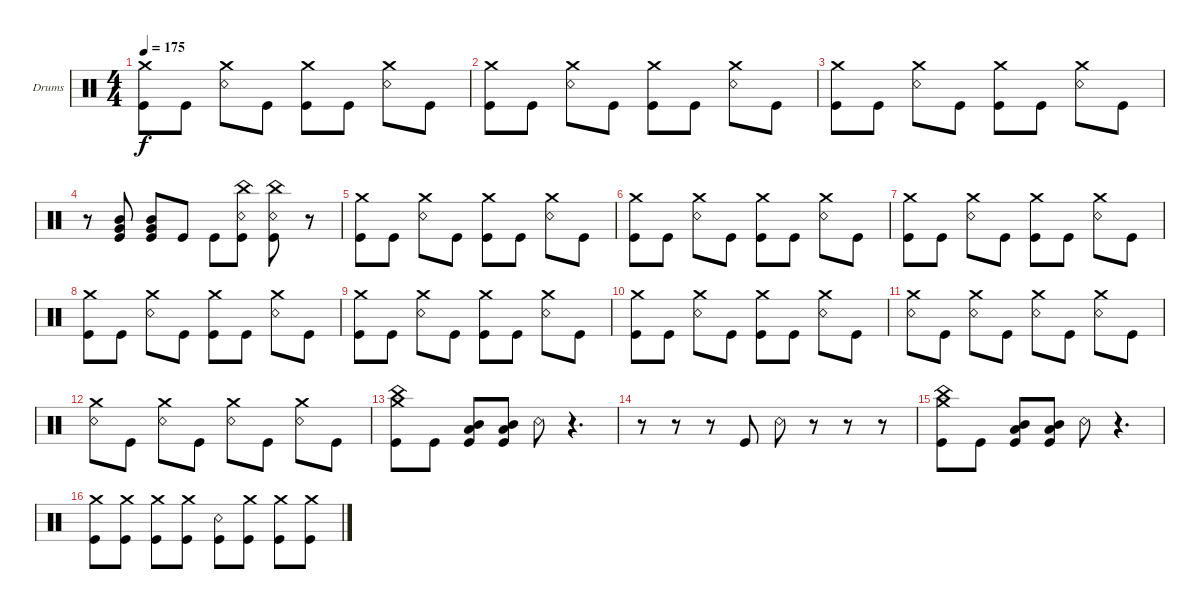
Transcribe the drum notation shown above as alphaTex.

\bracketExtendMode groupsimilarinstruments
\firstSystemTrackNameOrientation horizontal
\otherSystemsTrackNameOrientation horizontal
\track ("Kanky Lora" "Drums") {instrument percussion}
\staff {score}
\articulation defaults
\ts (4 4)
\tempo 175
\clef neutral
\ks c
("Kick (hit)" "Crash medium (hit)").8{dy f} "Kick (hit)".8 ("Snare (rim shot)" "Crash medium (hit)").8 "Kick (hit)".8 ("Kick (hit)" "Crash medium (hit)").8 "Kick (hit)".8 ("Snare (rim shot)" "Crash medium (hit)").8 "Kick (hit)".8 |
("Kick (hit)" "Crash medium (hit)").8 "Kick (hit)".8 ("Snare (rim shot)" "Crash medium (hit)").8 "Kick (hit)".8 ("Kick (hit)" "Crash medium (hit)").8 "Kick (hit)".8 ("Snare (rim shot)" "Crash medium (hit)").8 "Kick (hit)".8 |
("Kick (hit)" "Crash medium (hit)").8 "Kick (hit)".8 ("Snare (rim shot)" "Crash medium (hit)").8 "Kick (hit)".8 ("Kick (hit)" "Crash medium (hit)").8 "Kick (hit)".8 ("Snare (rim shot)" "Crash medium (hit)").8 "Kick (hit)".8 |
r.8 ("Very Low Tom (hit)" "Mid Tom (hit)" "Kick (hit)").8 ("Very Low Tom (hit)" "Mid Tom (hit)" "Kick (hit)").8 "Kick (hit)".8 "Kick (hit)".8 ("Kick (hit)" "Snare (rim shot)" "China (hit)").8 ("Kick (hit)" "Snare (rim shot)" "China (hit)").8 r.8 |
("Kick (hit)" "Crash medium (hit)").8 "Kick (hit)".8 ("Snare (rim shot)" "Crash medium (hit)").8 "Kick (hit)".8 ("Kick (hit)" "Crash medium (hit)").8 "Kick (hit)".8 ("Snare (rim shot)" "Crash medium (hit)").8 "Kick (hit)".8 |
("Kick (hit)" "Crash medium (hit)").8 "Kick (hit)".8 ("Snare (rim shot)" "Crash medium (hit)").8 "Kick (hit)".8 ("Kick (hit)" "Crash medium (hit)").8 "Kick (hit)".8 ("Snare (rim shot)" "Crash medium (hit)").8 "Kick (hit)".8 |
("Kick (hit)" "Crash medium (hit)").8 "Kick (hit)".8 ("Snare (rim shot)" "Crash medium (hit)").8 "Kick (hit)".8 ("Kick (hit)" "Crash medium (hit)").8 "Kick (hit)".8 ("Snare (rim shot)" "Crash medium (hit)").8 "Kick (hit)".8 |
("Kick (hit)" "Crash medium (hit)").8 "Kick (hit)".8 ("Snare (rim shot)" "Crash medium (hit)").8 "Kick (hit)".8 ("Kick (hit)" "Crash medium (hit)").8 "Kick (hit)".8 ("Snare (rim shot)" "Crash medium (hit)").8 "Kick (hit)".8 |
("Kick (hit)" "Crash medium (hit)").8 "Kick (hit)".8 ("Snare (rim shot)" "Crash medium (hit)").8 "Kick (hit)".8 ("Kick (hit)" "Crash medium (hit)").8 "Kick (hit)".8 ("Snare (rim shot)" "Crash medium (hit)").8 "Kick (hit)".8 |
("Kick (hit)" "Crash medium (hit)").8 "Kick (hit)".8 ("Snare (rim shot)" "Crash medium (hit)").8 "Kick (hit)".8 ("Kick (hit)" "Crash medium (hit)").8 "Kick (hit)".8 ("Snare (rim shot)" "Crash medium (hit)").8 "Kick (hit)".8 |
("Crash medium (hit)" "Snare (rim shot)").8 "Kick (hit)".8 ("Snare (rim shot)" "Crash medium (hit)").8 "Kick (hit)".8 ("Crash medium (hit)" "Snare (rim shot)").8 "Kick (hit)".8 ("Snare (rim shot)" "Crash medium (hit)").8 "Kick (hit)".8 |
("Crash medium (hit)" "Snare (rim shot)").8 "Kick (hit)".8 ("Snare (rim shot)" "Crash medium (hit)").8 "Kick (hit)".8 ("Crash medium (hit)" "Snare (rim shot)").8 "Kick (hit)".8 ("Snare (rim shot)" "Crash medium (hit)").8 "Kick (hit)".8 |
("Kick (hit)" "Crash medium (hit)" "China (hit)").8 "Kick (hit)".8 ("Kick (hit)" "Low Tom (hit)" "Mid Tom (hit)").8 ("Kick (hit)" "Mid Tom (hit)" "Low Tom (hit)").8 "Snare (rim shot)".8 r.4{d} |
r.8 r.8 r.8 "Kick (hit)".8 "Snare (rim shot)".8 r.8 r.8 r.8 |
("Kick (hit)" "Crash medium (hit)" "China (hit)").8 "Kick (hit)".8 ("Kick (hit)" "Low Tom (hit)" "Mid Tom (hit)").8 ("Kick (hit)" "Mid Tom (hit)" "Low Tom (hit)").8 "Snare (rim shot)".8 r.4{d} |
("Kick (hit)" "Crash medium (hit)").8 ("Kick (hit)" "Crash medium (hit)").8 ("Kick (hit)" "Crash medium (hit)").8 ("Kick (hit)" "Crash medium (hit)").8 ("Kick (hit)" "Snare (rim shot)").8 ("Kick (hit)" "Crash medium (hit)").8 ("Kick (hit)" "Crash medium (hit)").8 ("Kick (hit)" "Crash medium (hit)").8
